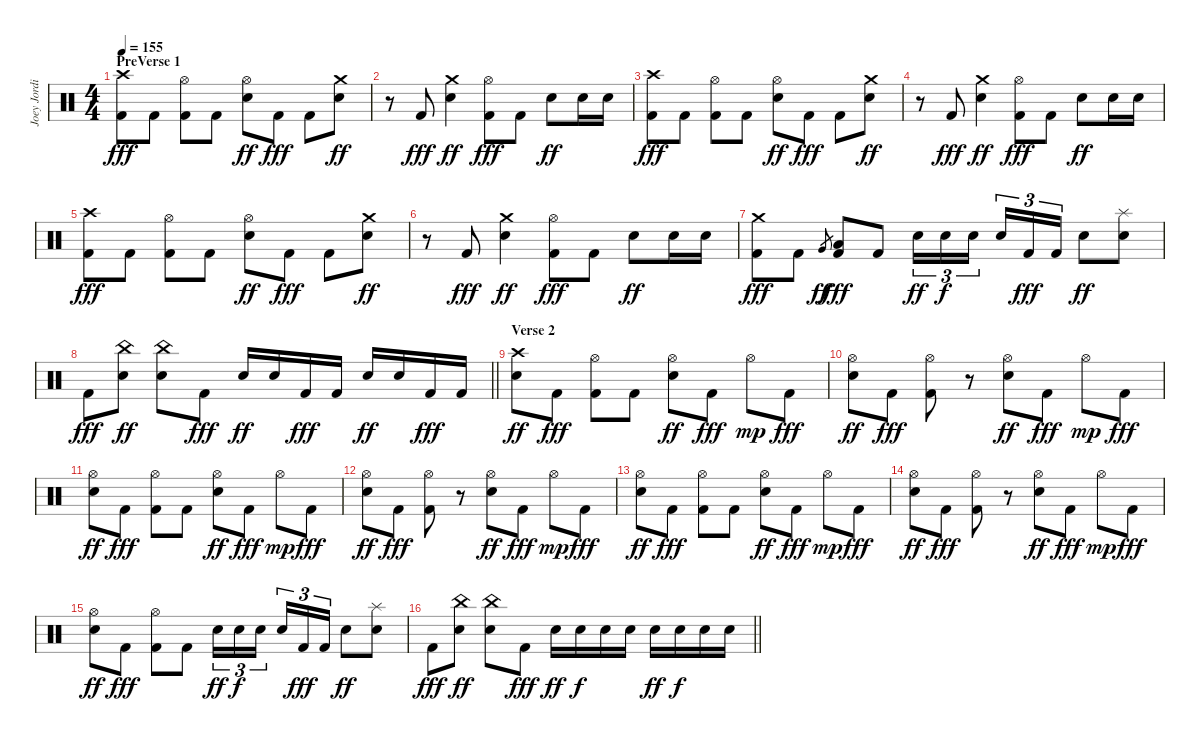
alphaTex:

\track ("Joey Jordison" "Joey Jordi") {instrument percussion}
\staff {score}
\articulation defaults
\ts (4 4)
\section ("" "PreVerse 1")
\tempo 155
\clef neutral
\ks c
("Crash high (hit)" "Kick (hit) 2").8{dy fff} "Kick (hit) 2".8 ("Hi-Hat (open)" "Kick (hit) 2").8 "Kick (hit) 2".8 ("Hi-Hat (open)" "Electric Snare (hit)").8{dy ff} "Kick (hit) 2".8{dy fff} "Kick (hit) 2".8 ("Crash medium (hit)" "Electric Snare (hit)").8{dy ff} |
r.8 "Kick (hit) 2".8{dy fff} ("Crash medium (hit)" "Electric Snare (hit)").4{dy ff} ("Hi-Hat (open)" "Kick (hit) 2").8{dy fff} "Kick (hit) 2".8 "Electric Snare (hit)".8{dy ff} "Electric Snare (hit)".16 "Electric Snare (hit)".16 |
("Crash high (hit)" "Kick (hit) 2").8{dy fff} "Kick (hit) 2".8 ("Hi-Hat (open)" "Kick (hit) 2").8 "Kick (hit) 2".8 ("Hi-Hat (open)" "Electric Snare (hit)").8{dy ff} "Kick (hit) 2".8{dy fff} "Kick (hit) 2".8 ("Crash medium (hit)" "Electric Snare (hit)").8{dy ff} |
r.8 "Kick (hit) 2".8{dy fff} ("Crash medium (hit)" "Electric Snare (hit)").4{dy ff} ("Hi-Hat (open)" "Kick (hit) 2").8{dy fff} "Kick (hit) 2".8 "Electric Snare (hit)".8{dy ff} "Electric Snare (hit)".16 "Electric Snare (hit)".16 |
("Crash high (hit)" "Kick (hit) 2").8{dy fff} "Kick (hit) 2".8 ("Hi-Hat (open)" "Kick (hit) 2").8 "Kick (hit) 2".8 ("Hi-Hat (open)" "Electric Snare (hit)").8{dy ff} "Kick (hit) 2".8{dy fff} "Kick (hit) 2".8 ("Crash medium (hit)" "Electric Snare (hit)").8{dy ff} |
r.8 "Kick (hit) 2".8{dy fff} ("Crash medium (hit)" "Electric Snare (hit)").4{dy ff} ("Hi-Hat (open)" "Kick (hit) 2").8{dy fff} "Kick (hit) 2".8 "Electric Snare (hit)".8{dy ff} "Electric Snare (hit)".16 "Electric Snare (hit)".16 |
("Crash medium (hit)" "Kick (hit) 2").8{dy fff} "Kick (hit) 2".8 "Very Low Tom (hit)".8{gr dy ff} ("Low Floor Tom (hit)" "Kick (hit) 2").8{dy fff} "Kick (hit) 2".8 "Electric Snare (hit)".16{tu (3 2) dy ff} "Electric Snare (hit)".16{tu (3 2) dy f} "Electric Snare (hit)".16{tu (3 2) beam splitsecondary} "Electric Snare (hit)".16{tu (3 2)} "Kick (hit) 2".16{tu (3 2) dy fff} "Kick (hit) 2".16{tu (3 2)} "Electric Snare (hit)".8{dy ff} ("Splash (hit)" "Electric Snare (hit)").8 |
\barLineRight lightlight "Kick (hit) 2".8{dy fff}
("China (hit)" "Electric Snare (hit)").8{dy ff} ("China (hit)" "Electric Snare (hit)").8 "Kick (hit) 2".8{dy fff} "Electric Snare (hit)".16{dy ff} "Electric Snare (hit)".16 "Kick (hit) 2".16{dy fff} "Kick (hit) 2".16 "Electric Snare (hit)".16{dy ff} "Electric Snare (hit)".16 "Kick (hit) 2".16{dy fff} "Kick (hit) 2".16 |
\section ("" "Verse 2")
("Crash high (hit)" "Electric Snare (hit)").8{dy ff} "Kick (hit) 2".8{dy fff} ("Hi-Hat (open)" "Kick (hit) 2").8 "Kick (hit) 2".8 ("Hi-Hat (open)" "Electric Snare (hit)").8{dy ff} "Kick (hit) 2".8{dy fff} "Hi-Hat (open)".8{dy mp} "Kick (hit) 2".8{dy fff} |
("Hi-Hat (open)" "Electric Snare (hit)").8{dy ff} "Kick (hit) 2".8{dy fff} ("Hi-Hat (open)" "Kick (hit) 2").8 r.8 ("Hi-Hat (open)" "Electric Snare (hit)").8{dy ff} "Kick (hit) 2".8{dy fff} "Hi-Hat (open)".8{dy mp} "Kick (hit) 2".8{dy fff} |
("Hi-Hat (open)" "Electric Snare (hit)").8{dy ff} "Kick (hit) 2".8{dy fff} ("Hi-Hat (open)" "Kick (hit) 2").8 "Kick (hit) 2".8 ("Hi-Hat (open)" "Electric Snare (hit)").8{dy ff} "Kick (hit) 2".8{dy fff} "Hi-Hat (open)".8{dy mp} "Kick (hit) 2".8{dy fff} |
("Hi-Hat (open)" "Electric Snare (hit)").8{dy ff} "Kick (hit) 2".8{dy fff} ("Hi-Hat (open)" "Kick (hit) 2").8 r.8 ("Hi-Hat (open)" "Electric Snare (hit)").8{dy ff} "Kick (hit) 2".8{dy fff} "Hi-Hat (open)".8{dy mp} "Kick (hit) 2".8{dy fff} |
("Hi-Hat (open)" "Electric Snare (hit)").8{dy ff} "Kick (hit) 2".8{dy fff} ("Hi-Hat (open)" "Kick (hit) 2").8 "Kick (hit) 2".8 ("Hi-Hat (open)" "Electric Snare (hit)").8{dy ff} "Kick (hit) 2".8{dy fff} "Hi-Hat (open)".8{dy mp} "Kick (hit) 2".8{dy fff} |
("Hi-Hat (open)" "Electric Snare (hit)").8{dy ff} "Kick (hit) 2".8{dy fff} ("Hi-Hat (open)" "Kick (hit) 2").8 r.8 ("Hi-Hat (open)" "Electric Snare (hit)").8{dy ff} "Kick (hit) 2".8{dy fff} "Hi-Hat (open)".8{dy mp} "Kick (hit) 2".8{dy fff} |
("Hi-Hat (open)" "Electric Snare (hit)").8{dy ff} "Kick (hit) 2".8{dy fff} ("Hi-Hat (open)" "Kick (hit) 2").8 "Kick (hit) 2".8 "Electric Snare (hit)".16{tu (3 2) dy ff} "Electric Snare (hit)".16{tu (3 2) dy f} "Electric Snare (hit)".16{tu (3 2) beam splitsecondary} "Electric Snare (hit)".16{tu (3 2)} "Kick (hit) 2".16{tu (3 2) dy fff} "Kick (hit) 2".16{tu (3 2)} "Electric Snare (hit)".8{dy ff} ("Splash (hit)" "Electric Snare (hit)").8 |
\barLineRight lightlight "Kick (hit) 2".8{dy fff}
("China (hit)" "Electric Snare (hit)").8{dy ff} ("China (hit)" "Electric Snare (hit)").8 "Kick (hit) 2".8{dy fff} "Electric Snare (hit)".16{dy ff} "Electric Snare (hit)".16{dy f} "Electric Snare (hit)".16 "Electric Snare (hit)".16 "Electric Snare (hit)".16{dy ff} "Electric Snare (hit)".16{dy f} "Electric Snare (hit)".16 "Electric Snare (hit)".16
